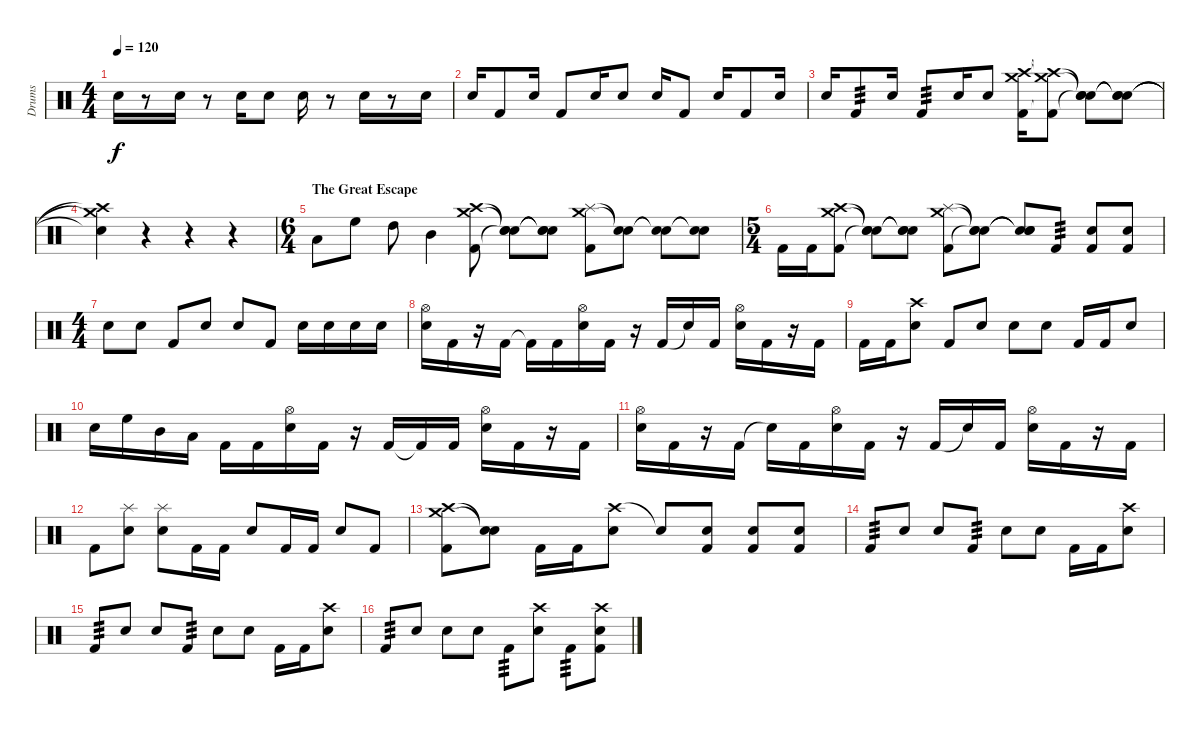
\track ("Drums" "Drums") {instrument percussion}
\staff {score}
\articulation defaults
\ts (4 4)
\tempo 120
\clef neutral
\ks c "Snare (hit) 2".16{dy f}
r.8 "Snare (hit) 2".16 r.8 "Snare (hit) 2".16 "Snare (hit) 2".8 "Snare (hit) 2".16 r.8 "Snare (hit) 2".16 r.8 "Snare (hit) 2".16 |
"Snare (hit) 2".16 "Kick (hit) 2".8 "Snare (hit) 2".16 "Kick (hit) 2".8 "Snare (hit) 2".16 "Snare (hit) 2".8 "Snare (hit) 2".16 "Kick (hit) 2".8 "Snare (hit) 2".16 "Kick (hit) 2".8 "Snare (hit) 2".16 |
"Snare (hit) 2".16 "Kick (hit) 2".8{tp 3} "Snare (hit) 2".16 "Kick (hit) 2".8{tp 3} "Snare (hit) 2".16 "Snare (hit) 2".8 ("Crash high (hit)" "Crash medium (hit)" "Kick (hit) 2").16 ("Crash high (hit)"{t} "Crash medium (hit)"{t} "Kick (hit) 2"{t}).8 ("Snare (hit)"{t} "Snare (hit)"{t} "Snare (hit)"{t}).8 ("Snare (hit)"{t} "Snare (hit)"{t} "Snare (hit)"{t}).8 |
("Crash high (hit)"{t} "Crash medium (hit)"{t} "Snare (hit)"{t}).4 r.4 r.4 r.4 |
\ts (6 4)
\section ("" "The Great Escape")
"Low Floor Tom (hit)".8 "High Floor Tom (hit)".8 "High Tom (hit)".8 "Mid Tom (hit)".4 ("Crash medium (hit)" "Crash high (hit)" "Kick (hit) 2").8 ("Snare (hit)"{t} "Snare (hit)"{t} "Snare (hit)"{t}).8 ("Snare (hit)"{t} "Snare (hit)"{t} "Snare (hit)"{t}).8 ("Crash medium (hit)" "Splash (hit)" "Kick (hit) 2").8 ("Snare (hit)"{t} "Snare (hit)"{t}).8 ("Snare (hit)"{t} "Snare (hit)"{t}).8 ("Snare (hit)"{t} "Snare (hit)"{t}).8 |
\ts (5 4)
"Kick (hit) 2".16 "Kick (hit) 2".16 ("Crash medium (hit)" "Crash high (hit)" "Kick (hit) 2").8 ("Snare (hit)"{t} "Snare (hit)"{t} "Snare (hit)"{t}).8 ("Snare (hit)"{t} "Snare (hit)"{t} "Snare (hit)"{t}).8 ("Crash medium (hit)" "Splash (hit)" "Kick (hit) 2").8 ("Snare (hit)"{t} "Snare (hit)"{t} "Snare (hit)"{t}).8 ("Snare (hit)"{t} "Snare (hit)"{t} "Snare (hit)"{t}).8 "Kick (hit) 2".8{tp 3} ("Snare (hit) 2" "Kick (hit) 2").8 ("Snare (hit) 2" "Kick (hit) 2").8 |
\ts (4 4)
"Snare (hit) 2".8 "Snare (hit) 2".8 "Kick (hit) 2".8 "Snare (hit) 2".8 "Snare (hit) 2".8 "Kick (hit) 2".8 "Snare (hit) 2".16 "Snare (hit) 2".16 "Snare (hit) 2".16 "Snare (hit) 2".16 |
("Hi-Hat (open)" "Snare (hit) 2").16 "Kick (hit) 2".16 r.16 "Kick (hit) 2".16 "Kick (hit) 2"{t}.16 "Kick (hit) 2".16 ("Hi-Hat (open)" "Snare (hit) 2").16 "Kick (hit) 2".16 r.16 "Kick (hit) 2".16 "Snare (hit)"{t}.16 "Kick (hit) 2".16 ("Hi-Hat (open)" "Snare (hit) 2").16 "Kick (hit) 2".16 r.16 "Kick (hit) 2".16 |
"Kick (hit) 2".16 "Kick (hit) 2".16 ("Crash high (hit)" "Snare (hit) 2").8 "Kick (hit) 2".8 "Snare (hit) 2".8 "Snare (hit) 2".8 "Snare (hit) 2".8 "Kick (hit) 2".16 "Kick (hit) 2".16 "Snare (hit) 2".8 |
"Snare (hit) 2".16 "High Floor Tom (hit)".16 "Mid Tom (hit)".16 "Low Tom (hit)".16 "Kick (hit) 2".16 "Kick (hit) 2".16 ("Hi-Hat (open)" "Snare (hit) 2").16 "Kick (hit) 2".16 r.16 "Kick (hit) 2".16 "Kick (hit) 2"{t}.16 "Kick (hit) 2".16 ("Hi-Hat (open)" "Snare (hit) 2").16 "Kick (hit) 2".16 r.16 "Kick (hit) 2".16 |
("Hi-Hat (open)" "Snare (hit) 2").16 "Kick (hit) 2".16 r.16 "Kick (hit) 2".16 "Snare (hit)"{t}.16 "Kick (hit) 2".16 ("Hi-Hat (open)" "Snare (hit) 2").16 "Kick (hit) 2".16 r.16 "Kick (hit) 2".16 "Snare (hit)"{t}.16 "Kick (hit) 2".16 ("Hi-Hat (open)" "Snare (hit) 2").16 "Kick (hit) 2".16 r.16 "Kick (hit) 2".16 |
"Kick (hit) 2".8 ("Splash (hit)" "Snare (hit) 2").8 ("Splash (hit)" "Snare (hit) 2").8 "Kick (hit) 2".16 "Kick (hit) 2".16 "Snare (hit) 2".8 "Kick (hit) 2".16 "Kick (hit) 2".16 "Snare (hit) 2".8 "Kick (hit) 2".8 |
("Crash medium (hit)" "Crash high (hit)" "Kick (hit) 2").8 ("Snare (hit)"{t} "Snare (hit)"{t}).8 "Kick (hit) 2".16 "Kick (hit) 2".16 ("Crash high (hit)" "Snare (hit) 2").8 "Snare (hit)"{t}.8 ("Snare (hit) 2" "Kick (hit) 2").8 ("Snare (hit) 2" "Kick (hit) 2").8 ("Snare (hit) 2" "Kick (hit) 2").8 |
"Kick (hit) 2".8{tp 3} "Snare (hit) 2".8 "Snare (hit) 2".8 "Kick (hit) 2".8{tp 3} "Snare (hit) 2".8 "Snare (hit) 2".8 "Kick (hit) 2".16 "Kick (hit) 2".16 ("Crash high (hit)" "Snare (hit) 2").8 |
"Kick (hit) 2".8{tp 3} "Snare (hit) 2".8 "Snare (hit) 2".8 "Kick (hit) 2".8{tp 3} "Snare (hit) 2".8 "Snare (hit) 2".8 "Kick (hit) 2".16 "Kick (hit) 2".16 ("Crash high (hit)" "Snare (hit) 2").8 |
"Kick (hit) 2".8{tp 3} "Snare (hit) 2".8 "Snare (hit) 2".8 "Snare (hit) 2".8 "Kick (hit) 2".8{tp 3} ("Crash high (hit)" "Snare (hit) 2").8 "Kick (hit) 2".8{tp 3} ("Crash high (hit)" "Snare (hit) 2" "Kick (hit) 2").8
